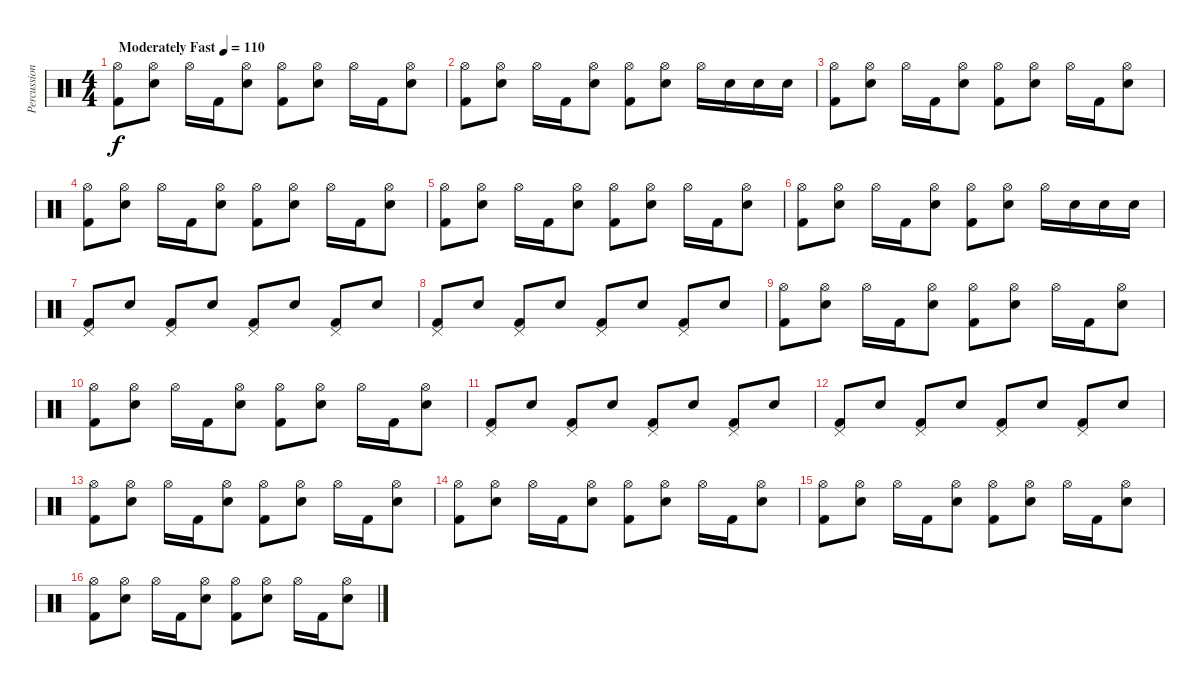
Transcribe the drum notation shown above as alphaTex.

\track ("Percussions" "Percussion") {instrument percussion}
\staff {score}
\articulation defaults
\ts (4 4)
\tempo (110 "Moderately Fast")
\clef neutral
\ks c
("Hi-Hat (open)" "Kick (hit) 2").8{dy f} ("Hi-Hat (open)" "Electric Snare (hit)").8 "Hi-Hat (open)".16 "Kick (hit) 2".16 ("Hi-Hat (open)" "Electric Snare (hit)").8 ("Hi-Hat (open)" "Kick (hit) 2").8 ("Hi-Hat (open)" "Electric Snare (hit)").8 "Hi-Hat (open)".16 "Kick (hit) 2".16 ("Hi-Hat (open)" "Electric Snare (hit)").8 |
("Hi-Hat (open)" "Kick (hit) 2").8 ("Hi-Hat (open)" "Electric Snare (hit)").8 "Hi-Hat (open)".16 "Kick (hit) 2".16 ("Hi-Hat (open)" "Electric Snare (hit)").8 ("Hi-Hat (open)" "Kick (hit) 2").8 ("Hi-Hat (open)" "Electric Snare (hit)").8 "Hi-Hat (open)".16 "Electric Snare (hit)".16 "Electric Snare (hit)".16 "Electric Snare (hit)".16 |
("Hi-Hat (open)" "Kick (hit) 2").8 ("Hi-Hat (open)" "Electric Snare (hit)").8 "Hi-Hat (open)".16 "Kick (hit) 2".16 ("Hi-Hat (open)" "Electric Snare (hit)").8 ("Hi-Hat (open)" "Kick (hit) 2").8 ("Hi-Hat (open)" "Electric Snare (hit)").8 "Hi-Hat (open)".16 "Kick (hit) 2".16 ("Hi-Hat (open)" "Electric Snare (hit)").8 |
("Hi-Hat (open)" "Kick (hit) 2").8 ("Hi-Hat (open)" "Electric Snare (hit)").8 "Hi-Hat (open)".16 "Kick (hit) 2".16 ("Hi-Hat (open)" "Electric Snare (hit)").8 ("Hi-Hat (open)" "Kick (hit) 2").8 ("Hi-Hat (open)" "Electric Snare (hit)").8 "Hi-Hat (open)".16 "Kick (hit) 2".16 ("Hi-Hat (open)" "Electric Snare (hit)").8 |
("Hi-Hat (open)" "Kick (hit) 2").8 ("Hi-Hat (open)" "Electric Snare (hit)").8 "Hi-Hat (open)".16 "Kick (hit) 2".16 ("Hi-Hat (open)" "Electric Snare (hit)").8 ("Hi-Hat (open)" "Kick (hit) 2").8 ("Hi-Hat (open)" "Electric Snare (hit)").8 "Hi-Hat (open)".16 "Kick (hit) 2".16 ("Hi-Hat (open)" "Electric Snare (hit)").8 |
("Hi-Hat (open)" "Kick (hit) 2").8 ("Hi-Hat (open)" "Electric Snare (hit)").8 "Hi-Hat (open)".16 "Kick (hit) 2".16 ("Hi-Hat (open)" "Electric Snare (hit)").8 ("Hi-Hat (open)" "Kick (hit) 2").8 ("Hi-Hat (open)" "Electric Snare (hit)").8 "Hi-Hat (open)".16 "Electric Snare (hit)".16 "Electric Snare (hit)".16 "Electric Snare (hit)".16 |
("Pedal Hi-Hat (hit)" "Kick (hit) 2").8 "Electric Snare (hit)".8 ("Pedal Hi-Hat (hit)" "Kick (hit) 2").8 "Electric Snare (hit)".8 ("Pedal Hi-Hat (hit)" "Kick (hit) 2").8 "Electric Snare (hit)".8 ("Pedal Hi-Hat (hit)" "Kick (hit) 2").8 "Electric Snare (hit)".8 |
("Pedal Hi-Hat (hit)" "Kick (hit) 2").8 "Electric Snare (hit)".8 ("Pedal Hi-Hat (hit)" "Kick (hit) 2").8 "Electric Snare (hit)".8 ("Pedal Hi-Hat (hit)" "Kick (hit) 2").8 "Electric Snare (hit)".8 ("Pedal Hi-Hat (hit)" "Kick (hit) 2").8 "Electric Snare (hit)".8 |
("Hi-Hat (open)" "Kick (hit) 2").8 ("Hi-Hat (open)" "Electric Snare (hit)").8 "Hi-Hat (open)".16 "Kick (hit) 2".16 ("Hi-Hat (open)" "Electric Snare (hit)").8 ("Hi-Hat (open)" "Kick (hit) 2").8 ("Hi-Hat (open)" "Electric Snare (hit)").8 "Hi-Hat (open)".16 "Kick (hit) 2".16 ("Hi-Hat (open)" "Electric Snare (hit)").8 |
("Hi-Hat (open)" "Kick (hit) 2").8 ("Hi-Hat (open)" "Electric Snare (hit)").8 "Hi-Hat (open)".16 "Kick (hit) 2".16 ("Hi-Hat (open)" "Electric Snare (hit)").8 ("Hi-Hat (open)" "Kick (hit) 2").8 ("Hi-Hat (open)" "Electric Snare (hit)").8 "Hi-Hat (open)".16 "Kick (hit) 2".16 ("Hi-Hat (open)" "Electric Snare (hit)").8 |
("Pedal Hi-Hat (hit)" "Kick (hit) 2").8 "Electric Snare (hit)".8 ("Pedal Hi-Hat (hit)" "Kick (hit) 2").8 "Electric Snare (hit)".8 ("Pedal Hi-Hat (hit)" "Kick (hit) 2").8 "Electric Snare (hit)".8 ("Pedal Hi-Hat (hit)" "Kick (hit) 2").8 "Electric Snare (hit)".8 |
("Pedal Hi-Hat (hit)" "Kick (hit) 2").8 "Electric Snare (hit)".8 ("Pedal Hi-Hat (hit)" "Kick (hit) 2").8 "Electric Snare (hit)".8 ("Pedal Hi-Hat (hit)" "Kick (hit) 2").8 "Electric Snare (hit)".8 ("Pedal Hi-Hat (hit)" "Kick (hit) 2").8 "Electric Snare (hit)".8 |
("Hi-Hat (open)" "Kick (hit) 2").8 ("Hi-Hat (open)" "Electric Snare (hit)").8 "Hi-Hat (open)".16 "Kick (hit) 2".16 ("Hi-Hat (open)" "Electric Snare (hit)").8 ("Hi-Hat (open)" "Kick (hit) 2").8 ("Hi-Hat (open)" "Electric Snare (hit)").8 "Hi-Hat (open)".16 "Kick (hit) 2".16 ("Hi-Hat (open)" "Electric Snare (hit)").8 |
("Hi-Hat (open)" "Kick (hit) 2").8 ("Hi-Hat (open)" "Electric Snare (hit)").8 "Hi-Hat (open)".16 "Kick (hit) 2".16 ("Hi-Hat (open)" "Electric Snare (hit)").8 ("Hi-Hat (open)" "Kick (hit) 2").8 ("Hi-Hat (open)" "Electric Snare (hit)").8 "Hi-Hat (open)".16 "Kick (hit) 2".16 ("Hi-Hat (open)" "Electric Snare (hit)").8 |
("Hi-Hat (open)" "Kick (hit) 2").8 ("Hi-Hat (open)" "Electric Snare (hit)").8 "Hi-Hat (open)".16 "Kick (hit) 2".16 ("Hi-Hat (open)" "Electric Snare (hit)").8 ("Hi-Hat (open)" "Kick (hit) 2").8 ("Hi-Hat (open)" "Electric Snare (hit)").8 "Hi-Hat (open)".16 "Kick (hit) 2".16 ("Hi-Hat (open)" "Electric Snare (hit)").8 |
("Hi-Hat (open)" "Kick (hit) 2").8 ("Hi-Hat (open)" "Electric Snare (hit)").8 "Hi-Hat (open)".16 "Kick (hit) 2".16 ("Hi-Hat (open)" "Electric Snare (hit)").8 ("Hi-Hat (open)" "Kick (hit) 2").8 ("Hi-Hat (open)" "Electric Snare (hit)").8 "Hi-Hat (open)".16 "Kick (hit) 2".16 ("Hi-Hat (open)" "Electric Snare (hit)").8
